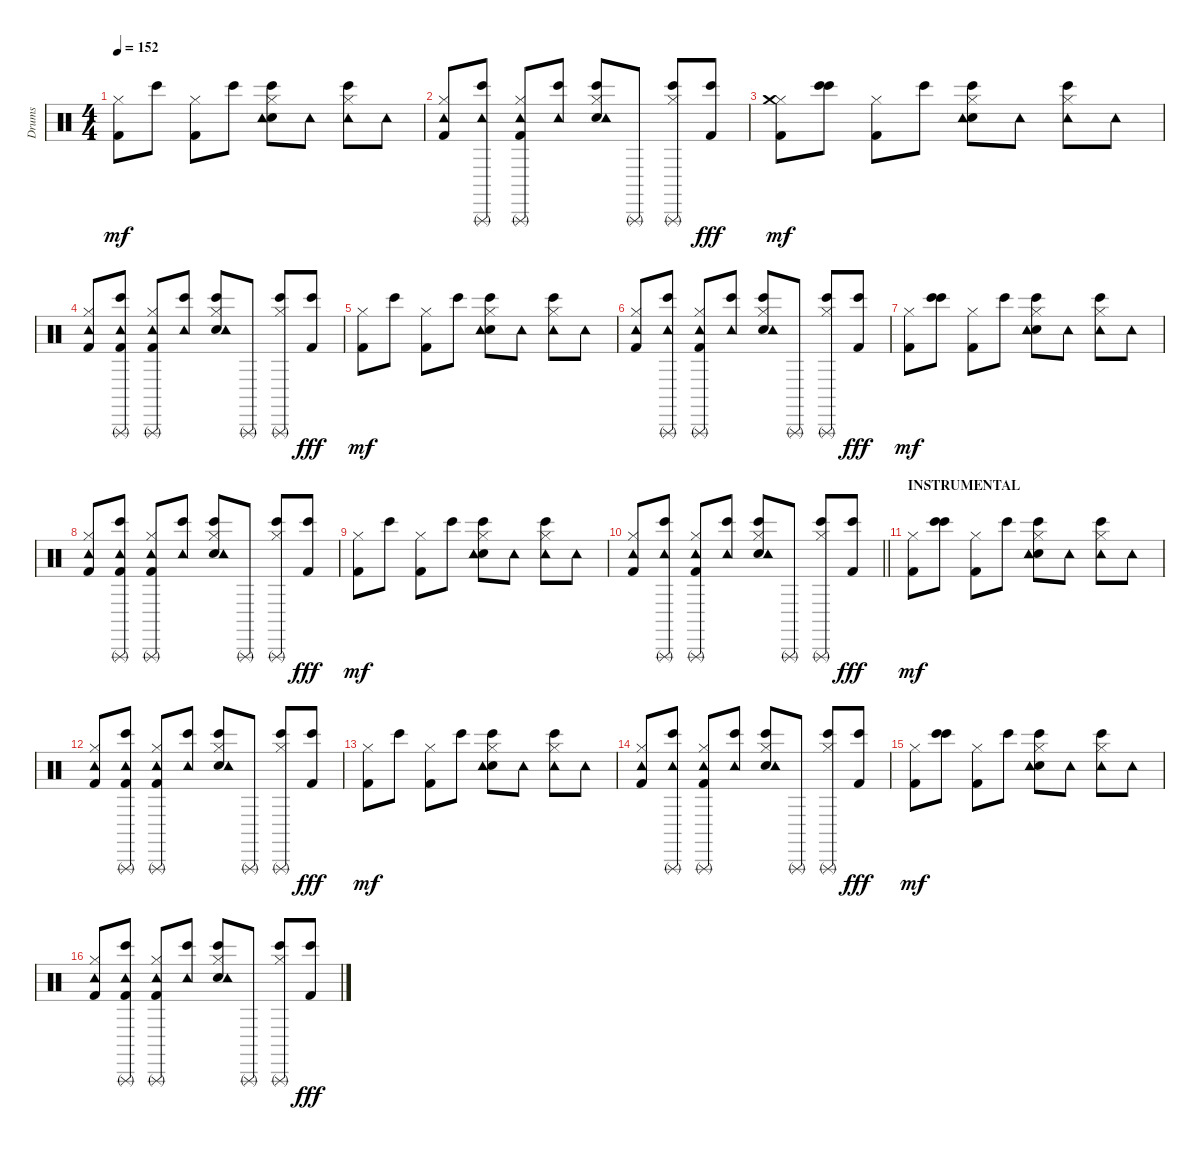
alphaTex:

\track ("Drums" "Drums") {instrument percussion}
\staff {score}
\articulation defaults
\ts (4 4)
\tempo 152
\clef neutral
\ks c
("Kick (hit) 2" "Hi-Hat (closed)").8{dy mf} "Bongo High (hit)".8 ("Kick (hit) 2" "Hi-Hat (closed)").8 "Bongo High (hit)".8 ("Bongo High (hit)" "Electric Snare (hit)" "Hi-Hat (closed)" "Tambourine (hit)").8 "Tambourine (hit)".8 ("Tambourine (hit)" "Bongo High (hit)" "Hi-Hat (closed)").8 "Tambourine (hit)".8 |
("Tambourine (hit)" "Kick (hit) 2" "Hi-Hat (closed)").8 ("Tambourine (hit)" "Bongo High (hit)" "Triangle (rnute)").8 ("Kick (hit) 2" "Hi-Hat (closed)" "Triangle (rnute)" "Tambourine (hit)").8 ("Tambourine (hit)" "Bongo High (hit)").8 ("Bongo High (hit)" "Electric Snare (hit)" "Hi-Hat (closed)" "Tambourine (hit)").8 "Triangle (rnute)".8 ("Bongo High (hit)" "Hi-Hat (closed)" "Triangle (rnute)").8 ("Bongo High (hit)" "Kick (hit) 2").8{dy fff} |
("Kick (hit) 2" "Hi-Hat (closed)" "Crash medium (hit)").8{dy mf} ("Bongo High (hit)" "Bongo High (hit)").8 ("Kick (hit) 2" "Hi-Hat (closed)").8 "Bongo High (hit)".8 ("Bongo High (hit)" "Electric Snare (hit)" "Hi-Hat (closed)" "Tambourine (hit)").8 "Tambourine (hit)".8 ("Tambourine (hit)" "Bongo High (hit)" "Hi-Hat (closed)").8 "Tambourine (hit)".8 |
("Tambourine (hit)" "Kick (hit) 2" "Hi-Hat (closed)").8 ("Tambourine (hit)" "Bongo High (hit)" "Kick (hit) 2" "Triangle (rnute)").8 ("Kick (hit) 2" "Hi-Hat (closed)" "Triangle (rnute)" "Tambourine (hit)").8 ("Tambourine (hit)" "Bongo High (hit)").8 ("Bongo High (hit)" "Electric Snare (hit)" "Hi-Hat (closed)" "Tambourine (hit)").8 "Triangle (rnute)".8 ("Bongo High (hit)" "Hi-Hat (closed)" "Triangle (rnute)").8 ("Bongo High (hit)" "Kick (hit) 2").8{dy fff} |
("Kick (hit) 2" "Hi-Hat (closed)").8{dy mf} "Bongo High (hit)".8 ("Kick (hit) 2" "Hi-Hat (closed)").8 "Bongo High (hit)".8 ("Bongo High (hit)" "Electric Snare (hit)" "Hi-Hat (closed)" "Tambourine (hit)").8 "Tambourine (hit)".8 ("Tambourine (hit)" "Bongo High (hit)" "Hi-Hat (closed)").8 "Tambourine (hit)".8 |
("Tambourine (hit)" "Kick (hit) 2" "Hi-Hat (closed)").8 ("Tambourine (hit)" "Bongo High (hit)" "Triangle (rnute)").8 ("Kick (hit) 2" "Hi-Hat (closed)" "Triangle (rnute)" "Tambourine (hit)").8 ("Tambourine (hit)" "Bongo High (hit)").8 ("Bongo High (hit)" "Electric Snare (hit)" "Hi-Hat (closed)" "Tambourine (hit)").8 "Triangle (rnute)".8 ("Bongo High (hit)" "Hi-Hat (closed)" "Triangle (rnute)").8 ("Bongo High (hit)" "Kick (hit) 2").8{dy fff} |
("Kick (hit) 2" "Hi-Hat (closed)").8{dy mf} ("Bongo High (hit)" "Bongo High (hit)").8 ("Kick (hit) 2" "Hi-Hat (closed)").8 "Bongo High (hit)".8 ("Bongo High (hit)" "Electric Snare (hit)" "Hi-Hat (closed)" "Tambourine (hit)").8 "Tambourine (hit)".8 ("Tambourine (hit)" "Bongo High (hit)" "Hi-Hat (closed)").8 "Tambourine (hit)".8 |
("Tambourine (hit)" "Kick (hit) 2" "Hi-Hat (closed)").8 ("Tambourine (hit)" "Bongo High (hit)" "Kick (hit) 2" "Triangle (rnute)").8 ("Kick (hit) 2" "Hi-Hat (closed)" "Triangle (rnute)" "Tambourine (hit)").8 ("Tambourine (hit)" "Bongo High (hit)").8 ("Bongo High (hit)" "Electric Snare (hit)" "Hi-Hat (closed)" "Tambourine (hit)").8 "Triangle (rnute)".8 ("Bongo High (hit)" "Hi-Hat (closed)" "Triangle (rnute)").8 ("Bongo High (hit)" "Kick (hit) 2").8{dy fff} |
("Kick (hit) 2" "Hi-Hat (closed)").8{dy mf} "Bongo High (hit)".8 ("Kick (hit) 2" "Hi-Hat (closed)").8 "Bongo High (hit)".8 ("Bongo High (hit)" "Electric Snare (hit)" "Hi-Hat (closed)" "Tambourine (hit)").8 "Tambourine (hit)".8 ("Tambourine (hit)" "Bongo High (hit)" "Hi-Hat (closed)").8 "Tambourine (hit)".8 |
\barLineRight lightlight
("Tambourine (hit)" "Kick (hit) 2" "Hi-Hat (closed)").8 ("Tambourine (hit)" "Bongo High (hit)" "Triangle (rnute)").8 ("Kick (hit) 2" "Hi-Hat (closed)" "Triangle (rnute)" "Tambourine (hit)").8 ("Tambourine (hit)" "Bongo High (hit)").8 ("Bongo High (hit)" "Electric Snare (hit)" "Hi-Hat (closed)" "Tambourine (hit)").8 "Triangle (rnute)".8 ("Bongo High (hit)" "Hi-Hat (closed)" "Triangle (rnute)").8 ("Bongo High (hit)" "Kick (hit) 2").8{dy fff} |
\section ("" "INSTRUMENTAL")
("Kick (hit) 2" "Hi-Hat (closed)").8{dy mf} ("Bongo High (hit)" "Bongo High (hit)").8 ("Kick (hit) 2" "Hi-Hat (closed)").8 "Bongo High (hit)".8 ("Bongo High (hit)" "Electric Snare (hit)" "Hi-Hat (closed)" "Tambourine (hit)").8 "Tambourine (hit)".8 ("Tambourine (hit)" "Bongo High (hit)" "Hi-Hat (closed)").8 "Tambourine (hit)".8 |
("Tambourine (hit)" "Kick (hit) 2" "Hi-Hat (closed)").8 ("Tambourine (hit)" "Bongo High (hit)" "Kick (hit) 2" "Triangle (rnute)").8 ("Kick (hit) 2" "Hi-Hat (closed)" "Triangle (rnute)" "Tambourine (hit)").8 ("Tambourine (hit)" "Bongo High (hit)").8 ("Bongo High (hit)" "Electric Snare (hit)" "Hi-Hat (closed)" "Tambourine (hit)").8 "Triangle (rnute)".8 ("Bongo High (hit)" "Hi-Hat (closed)" "Triangle (rnute)").8 ("Bongo High (hit)" "Kick (hit) 2").8{dy fff} |
("Kick (hit) 2" "Hi-Hat (closed)").8{dy mf} "Bongo High (hit)".8 ("Kick (hit) 2" "Hi-Hat (closed)").8 "Bongo High (hit)".8 ("Bongo High (hit)" "Electric Snare (hit)" "Hi-Hat (closed)" "Tambourine (hit)").8 "Tambourine (hit)".8 ("Tambourine (hit)" "Bongo High (hit)" "Hi-Hat (closed)").8 "Tambourine (hit)".8 |
("Tambourine (hit)" "Kick (hit) 2" "Hi-Hat (closed)").8 ("Tambourine (hit)" "Bongo High (hit)" "Triangle (rnute)").8 ("Kick (hit) 2" "Hi-Hat (closed)" "Triangle (rnute)" "Tambourine (hit)").8 ("Tambourine (hit)" "Bongo High (hit)").8 ("Bongo High (hit)" "Electric Snare (hit)" "Hi-Hat (closed)" "Tambourine (hit)").8 "Triangle (rnute)".8 ("Bongo High (hit)" "Hi-Hat (closed)" "Triangle (rnute)").8 ("Bongo High (hit)" "Kick (hit) 2").8{dy fff} |
("Kick (hit) 2" "Hi-Hat (closed)").8{dy mf} ("Bongo High (hit)" "Bongo High (hit)").8 ("Kick (hit) 2" "Hi-Hat (closed)").8 "Bongo High (hit)".8 ("Bongo High (hit)" "Electric Snare (hit)" "Hi-Hat (closed)" "Tambourine (hit)").8 "Tambourine (hit)".8 ("Tambourine (hit)" "Bongo High (hit)" "Hi-Hat (closed)").8 "Tambourine (hit)".8 |
("Tambourine (hit)" "Kick (hit) 2" "Hi-Hat (closed)").8 ("Tambourine (hit)" "Bongo High (hit)" "Kick (hit) 2" "Triangle (rnute)").8 ("Kick (hit) 2" "Hi-Hat (closed)" "Triangle (rnute)" "Tambourine (hit)").8 ("Tambourine (hit)" "Bongo High (hit)").8 ("Bongo High (hit)" "Electric Snare (hit)" "Hi-Hat (closed)" "Tambourine (hit)").8 "Triangle (rnute)".8 ("Bongo High (hit)" "Hi-Hat (closed)" "Triangle (rnute)").8 ("Bongo High (hit)" "Kick (hit) 2").8{dy fff}
